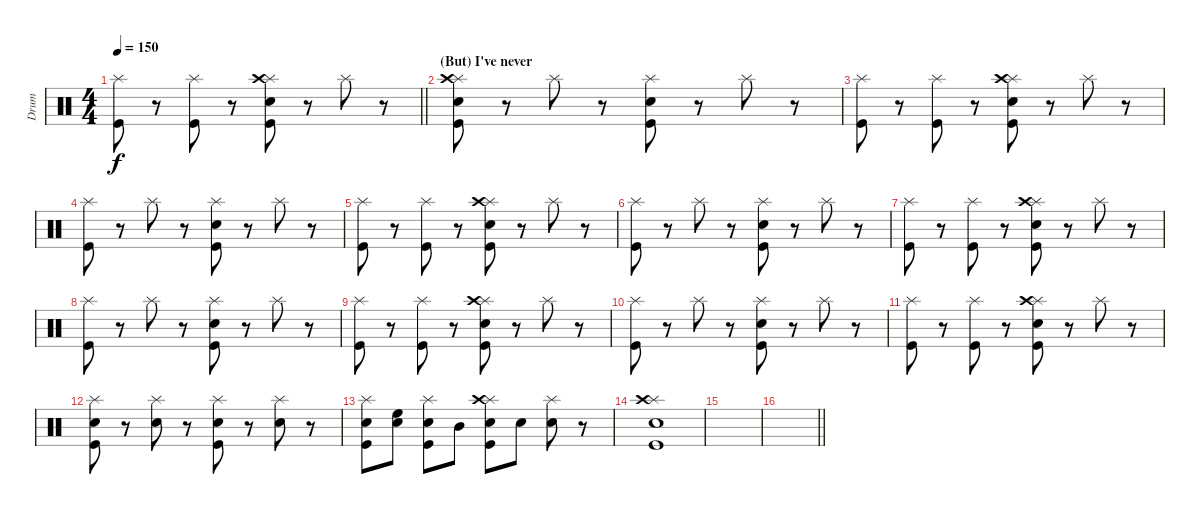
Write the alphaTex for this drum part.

\track ("Drum" "Drum") {instrument percussion}
\staff {score}
\articulation defaults
\ts (4 4)
\tempo 150
\clef neutral
\barLineRight lightlight
\ks c
("Splash (hit)" "Kick (hit)").8{dy f} r.8 ("Splash (hit)" "Kick (hit)").8 r.8 ("Splash (hit)" "Crash high (hit)" "Snare (hit) 2" "Kick (hit)").8 r.8 "Splash (hit)".8 r.8 |
\section ("" "(But) I've never")
("Splash (hit)" "Crash high (hit)" "Snare (hit) 2" "Kick (hit)").8 r.8 "Splash (hit)".8 r.8 ("Splash (hit)" "Snare (hit) 2" "Kick (hit)").8 r.8 "Splash (hit)".8 r.8 |
("Splash (hit)" "Kick (hit)").8 r.8 ("Splash (hit)" "Kick (hit)").8 r.8 ("Splash (hit)" "Crash high (hit)" "Snare (hit) 2" "Kick (hit)").8 r.8 "Splash (hit)".8 r.8 |
("Splash (hit)" "Kick (hit)").8 r.8 "Splash (hit)".8 r.8 ("Splash (hit)" "Snare (hit) 2" "Kick (hit)").8 r.8 "Splash (hit)".8 r.8 |
("Splash (hit)" "Kick (hit)").8 r.8 ("Splash (hit)" "Kick (hit)").8 r.8 ("Splash (hit)" "Crash high (hit)" "Snare (hit) 2" "Kick (hit)").8 r.8 "Splash (hit)".8 r.8 |
("Splash (hit)" "Kick (hit)").8 r.8 "Splash (hit)".8 r.8 ("Splash (hit)" "Snare (hit) 2" "Kick (hit)").8 r.8 "Splash (hit)".8 r.8 |
("Splash (hit)" "Kick (hit)").8 r.8 ("Splash (hit)" "Kick (hit)").8 r.8 ("Splash (hit)" "Crash high (hit)" "Snare (hit) 2" "Kick (hit)").8 r.8 "Splash (hit)".8 r.8 |
("Splash (hit)" "Kick (hit)").8 r.8 "Splash (hit)".8 r.8 ("Splash (hit)" "Snare (hit) 2" "Kick (hit)").8 r.8 "Splash (hit)".8 r.8 |
("Splash (hit)" "Kick (hit)").8 r.8 ("Splash (hit)" "Kick (hit)").8 r.8 ("Splash (hit)" "Crash high (hit)" "Snare (hit) 2" "Kick (hit)").8 r.8 "Splash (hit)".8 r.8 |
("Splash (hit)" "Kick (hit)").8 r.8 "Splash (hit)".8 r.8 ("Splash (hit)" "Snare (hit) 2" "Kick (hit)").8 r.8 "Splash (hit)".8 r.8 |
("Splash (hit)" "Kick (hit)").8 r.8 ("Splash (hit)" "Kick (hit)").8 r.8 ("Splash (hit)" "Crash high (hit)" "Snare (hit) 2" "Kick (hit)").8 r.8 "Splash (hit)".8 r.8 |
("Splash (hit)" "Snare (hit) 2" "Kick (hit)").8 r.8 ("Splash (hit)" "Snare (hit) 2").8 r.8 ("Splash (hit)" "Snare (hit) 2" "Kick (hit)").8 r.8 ("Splash (hit)" "Snare (hit) 2").8 r.8 |
("Splash (hit)" "Snare (hit) 2" "Kick (hit)").8 ("Snare (hit) 2" "High Floor Tom (hit)").8 ("Splash (hit)" "Snare (hit) 2" "Kick (hit)").8 "Mid Tom (hit)".8 ("Splash (hit)" "Crash high (hit)" "Snare (hit) 2" "Kick (hit)").8 "Snare (hit) 2".8 ("Splash (hit)" "Snare (hit) 2").8 r.8 |
("Splash (hit)" "Crash high (hit)" "Snare (hit) 2" "Kick (hit)").1 |
|
\barLineRight lightlight
